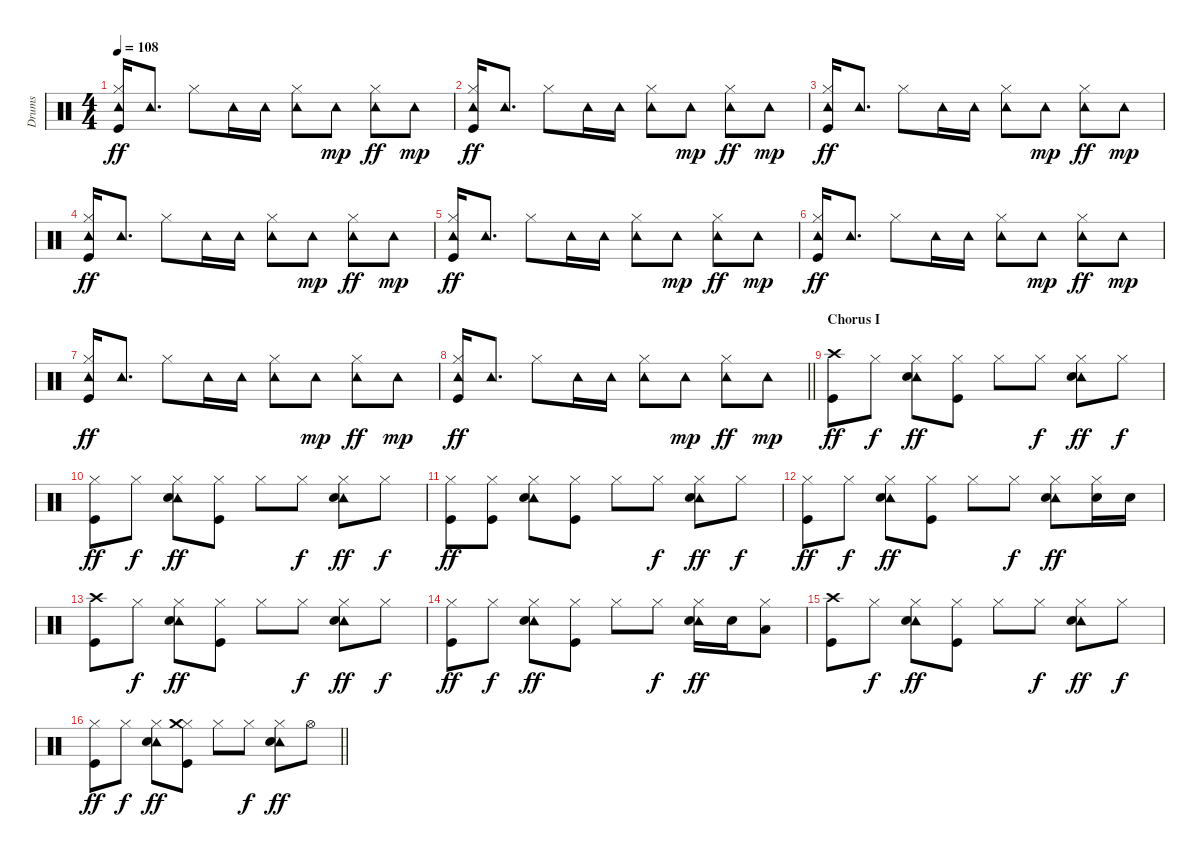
\track ("Drums" "Drums") {instrument percussion}
\staff {score}
\articulation defaults
\ts (4 4)
\tempo 108
\clef neutral
\ks c
("Tambourine (hit)" "Hi-Hat (closed)" "Kick (hit)").16{dy ff} "Tambourine (hit)".8{d} "Hi-Hat (closed)".8 "Tambourine (hit)".16 "Tambourine (hit)".16 ("Tambourine (hit)" "Hi-Hat (closed)").8 "Tambourine (hit)".8{dy mp} ("Tambourine (hit)" "Hi-Hat (closed)").8{dy ff} "Tambourine (hit)".8{dy mp} |
("Tambourine (hit)" "Hi-Hat (closed)" "Kick (hit)").16{dy ff} "Tambourine (hit)".8{d} "Hi-Hat (closed)".8 "Tambourine (hit)".16 "Tambourine (hit)".16 ("Tambourine (hit)" "Hi-Hat (closed)").8 "Tambourine (hit)".8{dy mp} ("Tambourine (hit)" "Hi-Hat (closed)").8{dy ff} "Tambourine (hit)".8{dy mp} |
("Tambourine (hit)" "Hi-Hat (closed)" "Kick (hit)").16{dy ff} "Tambourine (hit)".8{d} "Hi-Hat (closed)".8 "Tambourine (hit)".16 "Tambourine (hit)".16 ("Tambourine (hit)" "Hi-Hat (closed)").8 "Tambourine (hit)".8{dy mp} ("Tambourine (hit)" "Hi-Hat (closed)").8{dy ff} "Tambourine (hit)".8{dy mp} |
("Tambourine (hit)" "Hi-Hat (closed)" "Kick (hit)").16{dy ff} "Tambourine (hit)".8{d} "Hi-Hat (closed)".8 "Tambourine (hit)".16 "Tambourine (hit)".16 ("Tambourine (hit)" "Hi-Hat (closed)").8 "Tambourine (hit)".8{dy mp} ("Tambourine (hit)" "Hi-Hat (closed)").8{dy ff} "Tambourine (hit)".8{dy mp} |
("Tambourine (hit)" "Hi-Hat (closed)" "Kick (hit)").16{dy ff} "Tambourine (hit)".8{d} "Hi-Hat (closed)".8 "Tambourine (hit)".16 "Tambourine (hit)".16 ("Tambourine (hit)" "Hi-Hat (closed)").8 "Tambourine (hit)".8{dy mp} ("Tambourine (hit)" "Hi-Hat (closed)").8{dy ff} "Tambourine (hit)".8{dy mp} |
("Tambourine (hit)" "Hi-Hat (closed)" "Kick (hit)").16{dy ff} "Tambourine (hit)".8{d} "Hi-Hat (closed)".8 "Tambourine (hit)".16 "Tambourine (hit)".16 ("Tambourine (hit)" "Hi-Hat (closed)").8 "Tambourine (hit)".8{dy mp} ("Tambourine (hit)" "Hi-Hat (closed)").8{dy ff} "Tambourine (hit)".8{dy mp} |
("Tambourine (hit)" "Hi-Hat (closed)" "Kick (hit)").16{dy ff} "Tambourine (hit)".8{d} "Hi-Hat (closed)".8 "Tambourine (hit)".16 "Tambourine (hit)".16 ("Tambourine (hit)" "Hi-Hat (closed)").8 "Tambourine (hit)".8{dy mp} ("Tambourine (hit)" "Hi-Hat (closed)").8{dy ff} "Tambourine (hit)".8{dy mp} |
\barLineRight lightlight
("Tambourine (hit)" "Hi-Hat (closed)" "Kick (hit)").16{dy ff} "Tambourine (hit)".8{d} "Hi-Hat (closed)".8 "Tambourine (hit)".16 "Tambourine (hit)".16 ("Tambourine (hit)" "Hi-Hat (closed)").8 "Tambourine (hit)".8{dy mp} ("Tambourine (hit)" "Hi-Hat (closed)").8{dy ff} "Tambourine (hit)".8{dy mp} |
\section ("" "Chorus I")
("Crash high (hit)" "Kick (hit)").8{dy ff} "Hi-Hat (closed)".8{dy f} ("Hi-Hat (closed)" "Tambourine (hit)" "Electric Snare (hit)").8{dy ff} ("Hi-Hat (closed)" "Kick (hit)").8 "Hi-Hat (closed)".8 "Hi-Hat (closed)".8{dy f} ("Hi-Hat (closed)" "Tambourine (hit)" "Electric Snare (hit)").8{dy ff} "Hi-Hat (closed)".8{dy f} |
("Hi-Hat (closed)" "Kick (hit)").8{dy ff} "Hi-Hat (closed)".8{dy f} ("Hi-Hat (closed)" "Tambourine (hit)" "Electric Snare (hit)").8{dy ff} ("Hi-Hat (closed)" "Kick (hit)").8 "Hi-Hat (closed)".8 "Hi-Hat (closed)".8{dy f} ("Hi-Hat (closed)" "Tambourine (hit)" "Electric Snare (hit)").8{dy ff} "Hi-Hat (closed)".8{dy f} |
("Hi-Hat (closed)" "Kick (hit)").8{dy ff} ("Hi-Hat (closed)" "Kick (hit)").8 ("Hi-Hat (closed)" "Tambourine (hit)" "Electric Snare (hit)").8 ("Hi-Hat (closed)" "Kick (hit)").8 "Hi-Hat (closed)".8 "Hi-Hat (closed)".8{dy f} ("Hi-Hat (closed)" "Tambourine (hit)" "Electric Snare (hit)").8{dy ff} "Hi-Hat (closed)".8{dy f} |
("Hi-Hat (closed)" "Kick (hit)").8{dy ff} "Hi-Hat (closed)".8{dy f} ("Hi-Hat (closed)" "Tambourine (hit)" "Electric Snare (hit)").8{dy ff} ("Hi-Hat (closed)" "Kick (hit)").8 "Hi-Hat (closed)".8 "Hi-Hat (closed)".8{dy f} ("Hi-Hat (closed)" "Tambourine (hit)" "Electric Snare (hit)").8{dy ff} ("Hi-Hat (closed)" "Electric Snare (hit)").16 "Electric Snare (hit)".16 |
("Crash high (hit)" "Kick (hit)").8 "Hi-Hat (closed)".8{dy f} ("Hi-Hat (closed)" "Tambourine (hit)" "Electric Snare (hit)").8{dy ff} ("Hi-Hat (closed)" "Kick (hit)").8 "Hi-Hat (closed)".8 "Hi-Hat (closed)".8{dy f} ("Hi-Hat (closed)" "Tambourine (hit)" "Electric Snare (hit)").8{dy ff} "Hi-Hat (closed)".8{dy f} |
("Hi-Hat (closed)" "Kick (hit)").8{dy ff} "Hi-Hat (closed)".8{dy f} ("Hi-Hat (closed)" "Tambourine (hit)" "Electric Snare (hit)").8{dy ff} ("Hi-Hat (closed)" "Kick (hit)").8 "Hi-Hat (closed)".8 "Hi-Hat (closed)".8{dy f} ("Hi-Hat (closed)" "Tambourine (hit)" "Electric Snare (hit)").16{dy ff} "Electric Snare (hit)".16 ("Hi-Hat (closed)" "Low Tom (hit)").8 |
("Crash high (hit)" "Kick (hit)").8 "Hi-Hat (closed)".8{dy f} ("Hi-Hat (closed)" "Tambourine (hit)" "Electric Snare (hit)").8{dy ff} ("Hi-Hat (closed)" "Kick (hit)").8 "Hi-Hat (closed)".8 "Hi-Hat (closed)".8{dy f} ("Hi-Hat (closed)" "Tambourine (hit)" "Electric Snare (hit)").8{dy ff} "Hi-Hat (closed)".8{dy f} |
\barLineRight lightlight
("Hi-Hat (closed)" "Kick (hit)").8{dy ff} "Hi-Hat (closed)".8{dy f} ("Hi-Hat (closed)" "Tambourine (hit)" "Electric Snare (hit)").8{dy ff} ("Hi-Hat (closed)" "Crash medium (hit)" "Kick (hit)").8 "Hi-Hat (closed)".8 "Hi-Hat (closed)".8{dy f} ("Hi-Hat (closed)" "Tambourine (hit)" "Electric Snare (hit)").8{dy ff} "Hi-Hat (open)".8
